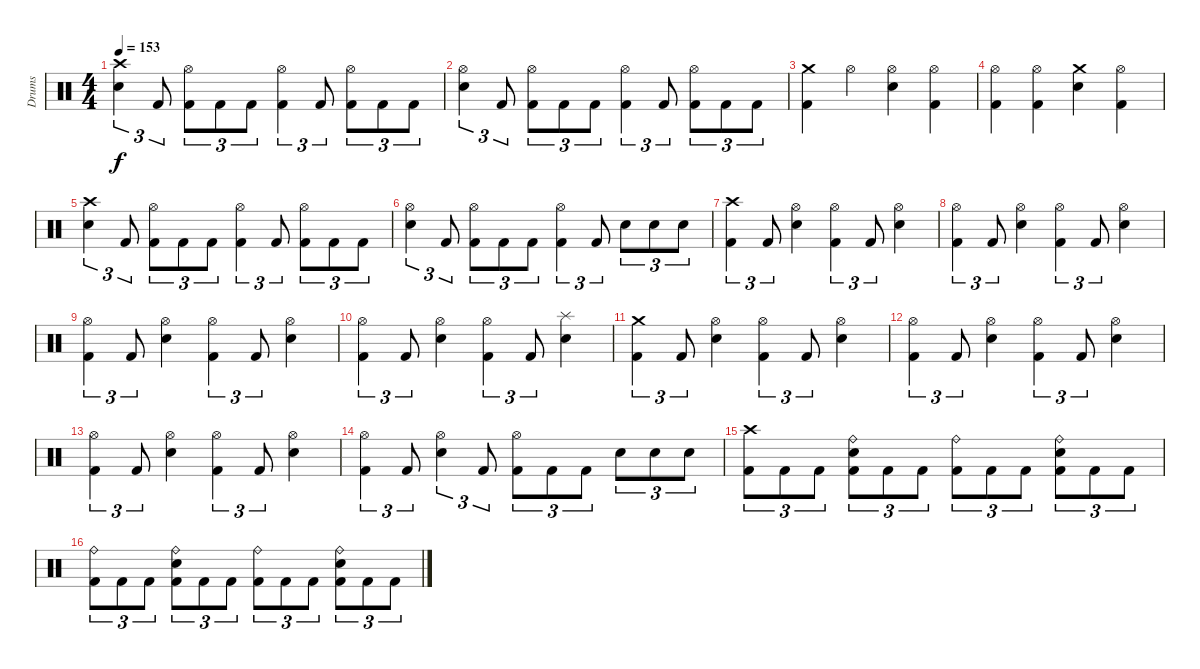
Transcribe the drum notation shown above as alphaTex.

\track ("Drums" "Drums") {instrument percussion}
\staff {score}
\articulation defaults
\ts (4 4)
\tempo 153
\clef neutral
\ks c
("Crash high (hit)" "Electric Snare (hit)").4{tu (3 2) dy f} "Kick (hit) 2".8{tu (3 2)} ("Hi-Hat (open)" "Kick (hit) 2").8{tu (3 2)} "Kick (hit) 2".8{tu (3 2)} "Kick (hit) 2".8{tu (3 2)} ("Hi-Hat (open)" "Kick (hit) 2").4{tu (3 2)} "Kick (hit) 2".8{tu (3 2)} ("Hi-Hat (open)" "Kick (hit) 2").8{tu (3 2)} "Kick (hit) 2".8{tu (3 2)} "Kick (hit) 2".8{tu (3 2)} |
("Hi-Hat (open)" "Electric Snare (hit)").4{tu (3 2)} "Kick (hit) 2".8{tu (3 2)} ("Hi-Hat (open)" "Kick (hit) 2").8{tu (3 2)} "Kick (hit) 2".8{tu (3 2)} "Kick (hit) 2".8{tu (3 2)} ("Hi-Hat (open)" "Kick (hit) 2").4{tu (3 2)} "Kick (hit) 2".8{tu (3 2)} ("Hi-Hat (open)" "Kick (hit) 2").8{tu (3 2)} "Kick (hit) 2".8{tu (3 2)} "Kick (hit) 2".8{tu (3 2)} |
("Crash medium (hit)" "Kick (hit) 2").4 "Hi-Hat (open)".4 ("Hi-Hat (open)" "Electric Snare (hit)").4 ("Hi-Hat (open)" "Kick (hit) 2").4 |
("Hi-Hat (open)" "Kick (hit) 2").4 ("Hi-Hat (open)" "Kick (hit) 2").4 ("Crash medium (hit)" "Electric Snare (hit)").4 ("Hi-Hat (open)" "Kick (hit) 2").4 |
("Crash high (hit)" "Electric Snare (hit)").4{tu (3 2)} "Kick (hit) 2".8{tu (3 2)} ("Hi-Hat (open)" "Kick (hit) 2").8{tu (3 2)} "Kick (hit) 2".8{tu (3 2)} "Kick (hit) 2".8{tu (3 2)} ("Hi-Hat (open)" "Kick (hit) 2").4{tu (3 2)} "Kick (hit) 2".8{tu (3 2)} ("Hi-Hat (open)" "Kick (hit) 2").8{tu (3 2)} "Kick (hit) 2".8{tu (3 2)} "Kick (hit) 2".8{tu (3 2)} |
("Hi-Hat (open)" "Electric Snare (hit)").4{tu (3 2)} "Kick (hit) 2".8{tu (3 2)} ("Hi-Hat (open)" "Kick (hit) 2").8{tu (3 2)} "Kick (hit) 2".8{tu (3 2)} "Kick (hit) 2".8{tu (3 2)} ("Hi-Hat (open)" "Kick (hit) 2").4{tu (3 2)} "Kick (hit) 2".8{tu (3 2)} "Electric Snare (hit)".8{tu (3 2)} "Electric Snare (hit)".8{tu (3 2)} "Electric Snare (hit)".8{tu (3 2)} |
("Crash high (hit)" "Kick (hit) 2").4{tu (3 2)} "Kick (hit) 2".8{tu (3 2)} ("Hi-Hat (open)" "Electric Snare (hit)").4 ("Hi-Hat (open)" "Kick (hit) 2").4{tu (3 2)} "Kick (hit) 2".8{tu (3 2)} ("Hi-Hat (open)" "Electric Snare (hit)").4 |
("Hi-Hat (open)" "Kick (hit) 2").4{tu (3 2)} "Kick (hit) 2".8{tu (3 2)} ("Hi-Hat (open)" "Electric Snare (hit)").4 ("Hi-Hat (open)" "Kick (hit) 2").4{tu (3 2)} "Kick (hit) 2".8{tu (3 2)} ("Hi-Hat (open)" "Electric Snare (hit)").4 |
("Hi-Hat (open)" "Kick (hit) 2").4{tu (3 2)} "Kick (hit) 2".8{tu (3 2)} ("Hi-Hat (open)" "Electric Snare (hit)").4 ("Hi-Hat (open)" "Kick (hit) 2").4{tu (3 2)} "Kick (hit) 2".8{tu (3 2)} ("Hi-Hat (open)" "Electric Snare (hit)").4 |
("Hi-Hat (open)" "Kick (hit) 2").4{tu (3 2)} "Kick (hit) 2".8{tu (3 2)} ("Hi-Hat (open)" "Electric Snare (hit)").4 ("Hi-Hat (open)" "Kick (hit) 2").4{tu (3 2)} "Kick (hit) 2".8{tu (3 2)} ("Splash (hit)" "Electric Snare (hit)").4 |
("Crash medium (hit)" "Kick (hit) 2").4{tu (3 2)} "Kick (hit) 2".8{tu (3 2)} ("Hi-Hat (open)" "Electric Snare (hit)").4 ("Hi-Hat (open)" "Kick (hit) 2").4{tu (3 2)} "Kick (hit) 2".8{tu (3 2)} ("Hi-Hat (open)" "Electric Snare (hit)").4 |
("Hi-Hat (open)" "Kick (hit) 2").4{tu (3 2)} "Kick (hit) 2".8{tu (3 2)} ("Hi-Hat (open)" "Electric Snare (hit)").4 ("Hi-Hat (open)" "Kick (hit) 2").4{tu (3 2)} "Kick (hit) 2".8{tu (3 2)} ("Hi-Hat (open)" "Electric Snare (hit)").4 |
("Hi-Hat (open)" "Kick (hit) 2").4{tu (3 2)} "Kick (hit) 2".8{tu (3 2)} ("Hi-Hat (open)" "Electric Snare (hit)").4 ("Hi-Hat (open)" "Kick (hit) 2").4{tu (3 2)} "Kick (hit) 2".8{tu (3 2)} ("Hi-Hat (open)" "Electric Snare (hit)").4 |
("Hi-Hat (open)" "Kick (hit) 2").4{tu (3 2)} "Kick (hit) 2".8{tu (3 2)} ("Hi-Hat (open)" "Electric Snare (hit)").4{tu (3 2)} "Kick (hit) 2".8{tu (3 2)} ("Hi-Hat (open)" "Kick (hit) 2").8{tu (3 2)} "Kick (hit) 2".8{tu (3 2)} "Kick (hit) 2".8{tu (3 2)} "Electric Snare (hit)".8{tu (3 2)} "Electric Snare (hit)".8{tu (3 2)} "Electric Snare (hit)".8{tu (3 2)} |
("Crash high (hit)" "Kick (hit) 2").8{tu (3 2)} "Kick (hit) 2".8{tu (3 2)} "Kick (hit) 2".8{tu (3 2)} ("Ride (bell)" "Electric Snare (hit)" "Kick (hit) 2").8{tu (3 2)} "Kick (hit) 2".8{tu (3 2)} "Kick (hit) 2".8{tu (3 2)} ("Ride (bell)" "Kick (hit) 2").8{tu (3 2)} "Kick (hit) 2".8{tu (3 2)} "Kick (hit) 2".8{tu (3 2)} ("Ride (bell)" "Electric Snare (hit)" "Kick (hit) 2").8{tu (3 2)} "Kick (hit) 2".8{tu (3 2)} "Kick (hit) 2".8{tu (3 2)} |
("Ride (bell)" "Kick (hit) 2").8{tu (3 2)} "Kick (hit) 2".8{tu (3 2)} "Kick (hit) 2".8{tu (3 2)} ("Ride (bell)" "Electric Snare (hit)" "Kick (hit) 2").8{tu (3 2)} "Kick (hit) 2".8{tu (3 2)} "Kick (hit) 2".8{tu (3 2)} ("Ride (bell)" "Kick (hit) 2").8{tu (3 2)} "Kick (hit) 2".8{tu (3 2)} "Kick (hit) 2".8{tu (3 2)} ("Ride (bell)" "Electric Snare (hit)" "Kick (hit) 2").8{tu (3 2)} "Kick (hit) 2".8{tu (3 2)} "Kick (hit) 2".8{tu (3 2)}
